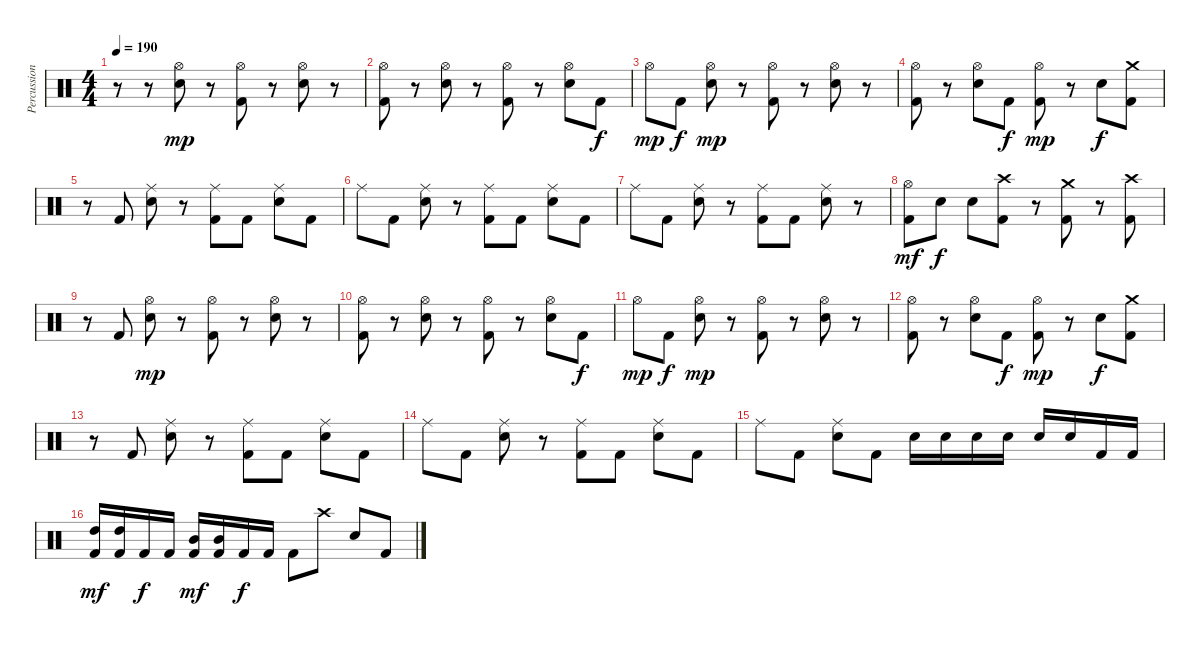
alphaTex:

\track ("Percussion" "Percussion") {instrument percussion}
\staff {score}
\articulation defaults
\ts (4 4)
\tempo 190
\clef neutral
\ks c
r.8{dy f} r.8 ("Hi-Hat (open)" "Snare (hit) 2").8{dy mp} r.8 ("Hi-Hat (open)" "Kick (hit) 2").8 r.8 ("Hi-Hat (open)" "Snare (hit) 2").8 r.8 |
("Hi-Hat (open)" "Kick (hit) 2").8 r.8 ("Hi-Hat (open)" "Snare (hit) 2").8 r.8 ("Hi-Hat (open)" "Kick (hit) 2").8 r.8 ("Hi-Hat (open)" "Snare (hit) 2").8 "Kick (hit) 2".8{dy f} |
"Hi-Hat (open)".8{dy mp} "Kick (hit) 2".8{dy f} ("Hi-Hat (open)" "Snare (hit) 2").8{dy mp} r.8 ("Hi-Hat (open)" "Kick (hit) 2").8 r.8 ("Hi-Hat (open)" "Snare (hit) 2").8 r.8 |
("Hi-Hat (open)" "Kick (hit) 2").8 r.8 ("Hi-Hat (open)" "Snare (hit) 2").8 "Kick (hit) 2".8{dy f} ("Hi-Hat (open)" "Kick (hit) 2").8{dy mp} r.8 "Snare (hit) 2".8{dy f} ("Crash medium (hit)" "Kick (hit) 2").8 |
r.8 "Kick (hit) 2".8 ("Ride (middle)" "Snare (hit) 2").8 r.8 ("Ride (middle)" "Kick (hit) 2").8 "Kick (hit) 2".8 ("Ride (middle)" "Snare (hit) 2").8 "Kick (hit) 2".8 |
"Ride (middle)".8 "Kick (hit) 2".8 ("Ride (middle)" "Snare (hit) 2").8 r.8 ("Ride (middle)" "Kick (hit) 2").8 "Kick (hit) 2".8 ("Ride (middle)" "Snare (hit) 2").8 "Kick (hit) 2".8 |
"Ride (middle)".8 "Kick (hit) 2".8 ("Ride (middle)" "Snare (hit) 2").8 r.8 ("Ride (middle)" "Kick (hit) 2").8 "Kick (hit) 2".8 ("Ride (middle)" "Snare (hit) 2").8 r.8 |
("Hi-Hat (open)" "Kick (hit) 2").8{dy mf} "Snare (hit) 2".8{dy f} "Snare (hit) 2".8 ("Crash high (hit)" "Kick (hit) 2").8 r.8 ("Crash medium (hit)" "Kick (hit) 2").8 r.8 ("Crash high (hit)" "Kick (hit) 2").8 |
r.8 "Kick (hit) 2".8 ("Hi-Hat (open)" "Snare (hit) 2").8{dy mp} r.8 ("Hi-Hat (open)" "Kick (hit) 2").8 r.8 ("Hi-Hat (open)" "Snare (hit) 2").8 r.8 |
("Hi-Hat (open)" "Kick (hit) 2").8 r.8 ("Hi-Hat (open)" "Snare (hit) 2").8 r.8 ("Hi-Hat (open)" "Kick (hit) 2").8 r.8 ("Hi-Hat (open)" "Snare (hit) 2").8 "Kick (hit) 2".8{dy f} |
"Hi-Hat (open)".8{dy mp} "Kick (hit) 2".8{dy f} ("Hi-Hat (open)" "Snare (hit) 2").8{dy mp} r.8 ("Hi-Hat (open)" "Kick (hit) 2").8 r.8 ("Hi-Hat (open)" "Snare (hit) 2").8 r.8 |
("Hi-Hat (open)" "Kick (hit) 2").8 r.8 ("Hi-Hat (open)" "Snare (hit) 2").8 "Kick (hit) 2".8{dy f} ("Hi-Hat (open)" "Kick (hit) 2").8{dy mp} r.8 "Snare (hit) 2".8{dy f} ("Crash medium (hit)" "Kick (hit) 2").8 |
r.8 "Kick (hit) 2".8 ("Ride (middle)" "Snare (hit) 2").8 r.8 ("Ride (middle)" "Kick (hit) 2").8 "Kick (hit) 2".8 ("Ride (middle)" "Snare (hit) 2").8 "Kick (hit) 2".8 |
"Ride (middle)".8 "Kick (hit) 2".8 ("Ride (middle)" "Snare (hit) 2").8 r.8 ("Ride (middle)" "Kick (hit) 2").8 "Kick (hit) 2".8 ("Ride (middle)" "Snare (hit) 2").8 "Kick (hit) 2".8 |
"Ride (middle)".8 "Kick (hit) 2".8 ("Ride (middle)" "Snare (hit) 2").8 "Kick (hit) 2".8 "Snare (hit) 2".16 "Snare (hit) 2".16 "Snare (hit) 2".16 "Snare (hit) 2".16 "Snare (hit) 2".16 "Snare (hit) 2".16 "Kick (hit) 2".16 "Kick (hit) 2".16 |
("High Tom (hit)" "Kick (hit) 2").16{dy mf} ("High Tom (hit)" "Kick (hit) 2").16 "Kick (hit) 2".16{dy f} "Kick (hit) 2".16 ("Mid Tom (hit)" "Kick (hit) 2").16{dy mf} ("Mid Tom (hit)" "Kick (hit) 2").16 "Kick (hit) 2".16{dy f} "Kick (hit) 2".16 "Kick (hit) 2".8 "Crash high (hit)".8 "Snare (hit) 2".8 "Kick (hit) 2".8
